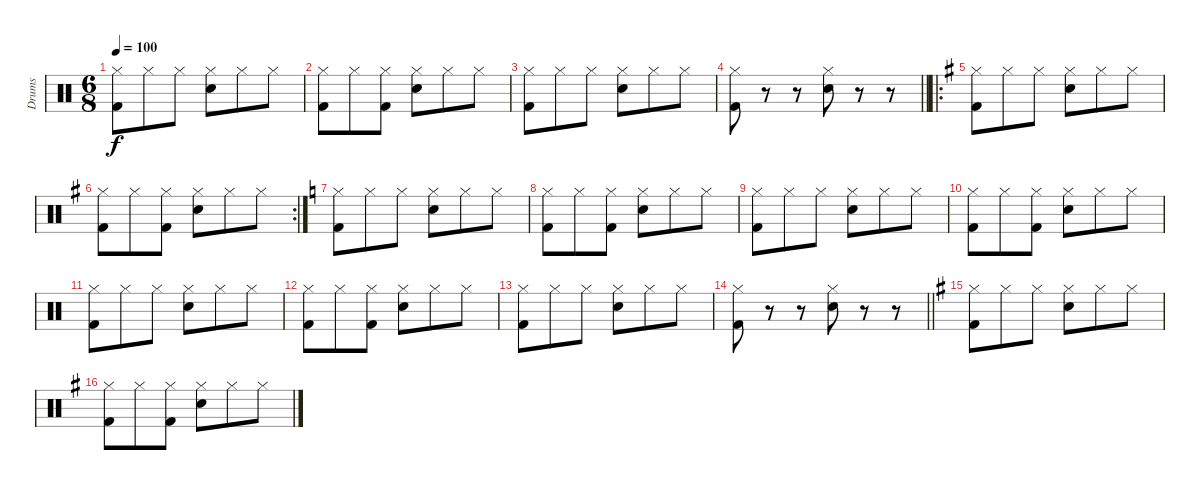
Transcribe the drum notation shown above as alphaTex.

\track ("Drums" "Drums") {instrument percussion}
\staff {score}
\articulation defaults
\ts (6 8)
\tempo 100
\clef neutral
\ks c
("Hi-Hat (closed)" "Kick (hit) 2").8{dy f} "Hi-Hat (closed)".8 "Hi-Hat (closed)".8 ("Hi-Hat (closed)" "Electric Snare (hit)").8 "Hi-Hat (closed)".8 "Hi-Hat (closed)".8 |
("Hi-Hat (closed)" "Kick (hit) 2").8 "Hi-Hat (closed)".8 ("Hi-Hat (closed)" "Kick (hit) 2").8 ("Hi-Hat (closed)" "Electric Snare (hit)").8 "Hi-Hat (closed)".8 "Hi-Hat (closed)".8 |
("Hi-Hat (closed)" "Kick (hit) 2").8 "Hi-Hat (closed)".8 "Hi-Hat (closed)".8 ("Hi-Hat (closed)" "Electric Snare (hit)").8 "Hi-Hat (closed)".8 "Hi-Hat (closed)".8 |
\barLineRight lightlight
("Hi-Hat (closed)" "Kick (hit) 2").8 r.8 r.8 ("Hi-Hat (closed)" "Electric Snare (hit)").8 r.8 r.8 |
\ro
\ks g
("Hi-Hat (closed)" "Kick (hit) 2").8 "Hi-Hat (closed)".8 "Hi-Hat (closed)".8 ("Hi-Hat (closed)" "Electric Snare (hit)").8 "Hi-Hat (closed)".8 "Hi-Hat (closed)".8 |
\rc 2
("Hi-Hat (closed)" "Kick (hit) 2").8 "Hi-Hat (closed)".8 ("Hi-Hat (closed)" "Kick (hit) 2").8 ("Hi-Hat (closed)" "Electric Snare (hit)").8 "Hi-Hat (closed)".8 "Hi-Hat (closed)".8 |
\ks c
("Hi-Hat (closed)" "Kick (hit) 2").8 "Hi-Hat (closed)".8 "Hi-Hat (closed)".8 ("Hi-Hat (closed)" "Electric Snare (hit)").8 "Hi-Hat (closed)".8 "Hi-Hat (closed)".8 |
("Hi-Hat (closed)" "Kick (hit) 2").8 "Hi-Hat (closed)".8 ("Hi-Hat (closed)" "Kick (hit) 2").8 ("Hi-Hat (closed)" "Electric Snare (hit)").8 "Hi-Hat (closed)".8 "Hi-Hat (closed)".8 |
("Hi-Hat (closed)" "Kick (hit) 2").8 "Hi-Hat (closed)".8 "Hi-Hat (closed)".8 ("Hi-Hat (closed)" "Electric Snare (hit)").8 "Hi-Hat (closed)".8 "Hi-Hat (closed)".8 |
("Hi-Hat (closed)" "Kick (hit) 2").8 "Hi-Hat (closed)".8 ("Hi-Hat (closed)" "Kick (hit) 2").8 ("Hi-Hat (closed)" "Electric Snare (hit)").8 "Hi-Hat (closed)".8 "Hi-Hat (closed)".8 |
("Hi-Hat (closed)" "Kick (hit) 2").8 "Hi-Hat (closed)".8 "Hi-Hat (closed)".8 ("Hi-Hat (closed)" "Electric Snare (hit)").8 "Hi-Hat (closed)".8 "Hi-Hat (closed)".8 |
("Hi-Hat (closed)" "Kick (hit) 2").8 "Hi-Hat (closed)".8 ("Hi-Hat (closed)" "Kick (hit) 2").8 ("Hi-Hat (closed)" "Electric Snare (hit)").8 "Hi-Hat (closed)".8 "Hi-Hat (closed)".8 |
("Hi-Hat (closed)" "Kick (hit) 2").8 "Hi-Hat (closed)".8 "Hi-Hat (closed)".8 ("Hi-Hat (closed)" "Electric Snare (hit)").8 "Hi-Hat (closed)".8 "Hi-Hat (closed)".8 |
\barLineRight lightlight
("Hi-Hat (closed)" "Kick (hit) 2").8 r.8 r.8 ("Hi-Hat (closed)" "Electric Snare (hit)").8 r.8 r.8 |
\ks g
("Hi-Hat (closed)" "Kick (hit) 2").8 "Hi-Hat (closed)".8 "Hi-Hat (closed)".8 ("Hi-Hat (closed)" "Electric Snare (hit)").8 "Hi-Hat (closed)".8 "Hi-Hat (closed)".8 |
("Hi-Hat (closed)" "Kick (hit) 2").8 "Hi-Hat (closed)".8 ("Hi-Hat (closed)" "Kick (hit) 2").8 ("Hi-Hat (closed)" "Electric Snare (hit)").8 "Hi-Hat (closed)".8 "Hi-Hat (closed)".8
